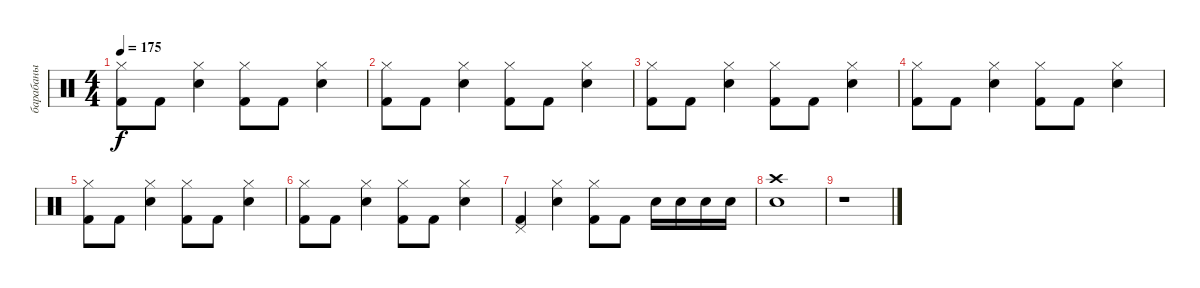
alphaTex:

\track ("барабаны" "барабаны") {instrument percussion}
\staff {score}
\articulation defaults
\ts (4 4)
\tempo 175
\clef neutral
\ks c
("Hi-Hat (closed)" "Kick (hit) 2").8{dy f} "Kick (hit) 2".8 ("Hi-Hat (closed)" "Snare (hit) 2").4 ("Hi-Hat (closed)" "Kick (hit) 2").8 "Kick (hit) 2".8 ("Hi-Hat (closed)" "Snare (hit) 2").4 |
("Hi-Hat (closed)" "Kick (hit) 2").8 "Kick (hit) 2".8 ("Hi-Hat (closed)" "Snare (hit) 2").4 ("Hi-Hat (closed)" "Kick (hit) 2").8 "Kick (hit) 2".8 ("Hi-Hat (closed)" "Snare (hit) 2").4 |
("Hi-Hat (closed)" "Kick (hit) 2").8 "Kick (hit) 2".8 ("Hi-Hat (closed)" "Snare (hit) 2").4 ("Hi-Hat (closed)" "Kick (hit) 2").8 "Kick (hit) 2".8 ("Hi-Hat (closed)" "Snare (hit) 2").4 |
("Hi-Hat (closed)" "Kick (hit) 2").8 "Kick (hit) 2".8 ("Hi-Hat (closed)" "Snare (hit) 2").4 ("Hi-Hat (closed)" "Kick (hit) 2").8 "Kick (hit) 2".8 ("Hi-Hat (closed)" "Snare (hit) 2").4 |
("Hi-Hat (closed)" "Kick (hit) 2").8 "Kick (hit) 2".8 ("Hi-Hat (closed)" "Snare (hit) 2").4 ("Hi-Hat (closed)" "Kick (hit) 2").8 "Kick (hit) 2".8 ("Hi-Hat (closed)" "Snare (hit) 2").4 |
("Hi-Hat (closed)" "Kick (hit) 2").8 "Kick (hit) 2".8 ("Hi-Hat (closed)" "Snare (hit) 2").4 ("Hi-Hat (closed)" "Kick (hit) 2").8 "Kick (hit) 2".8 ("Hi-Hat (closed)" "Snare (hit) 2").4 |
("Pedal Hi-Hat (hit)" "Kick (hit) 2").4 ("Hi-Hat (closed)" "Snare (hit) 2").4 ("Hi-Hat (closed)" "Kick (hit) 2").8 "Kick (hit) 2".8 "Snare (hit) 2".16 "Snare (hit) 2".16 "Snare (hit) 2".16 "Snare (hit) 2".16 |
("Crash high (hit)" "Snare (hit) 2").1 |
r.1
